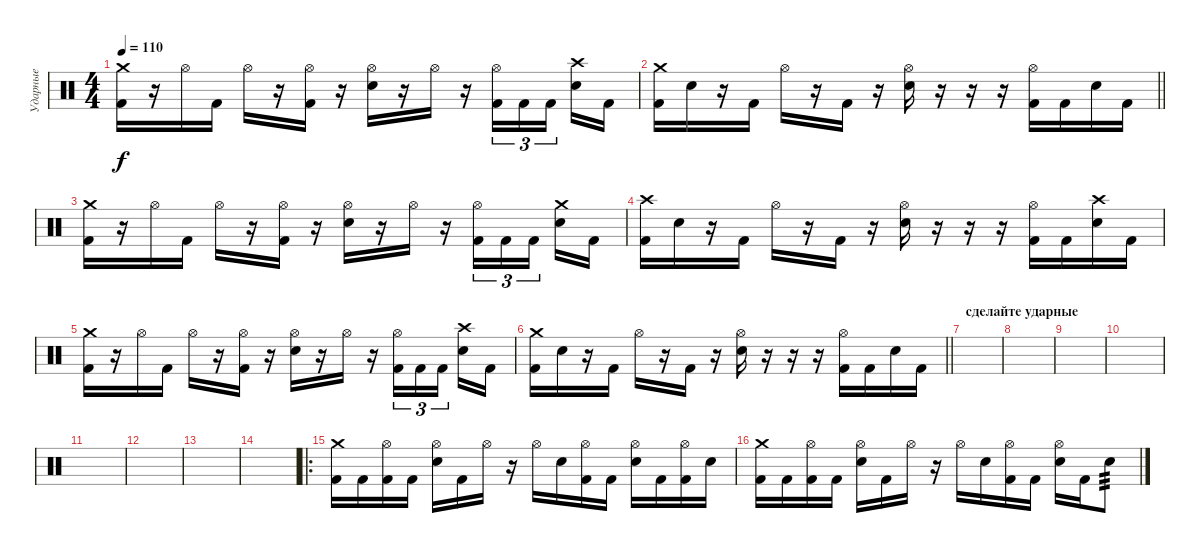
\track ("Ударные" "Ударные") {instrument percussion}
\staff {score}
\articulation defaults
\ts (4 4)
\tempo 110
\clef neutral
\ks c
("Crash medium (hit)" "Kick (hit) 2").16{dy f} r.16 "Hi-Hat (open)".16 "Kick (hit) 2".16 "Hi-Hat (open)".16 r.16 ("Hi-Hat (open)" "Kick (hit) 2").16 r.16 ("Hi-Hat (open)" "Electric Snare (hit)").16 r.16 "Hi-Hat (open)".16 r.16 ("Hi-Hat (open)" "Kick (hit) 2").16{tu (3 2)} "Kick (hit) 2".16{tu (3 2)} "Kick (hit) 2".16{tu (3 2) beam splitsecondary} ("Crash high (hit)" "Electric Snare (hit)").16 "Kick (hit) 2".16 |
\barLineRight lightlight
("Crash medium (hit)" "Kick (hit) 2").16 "Electric Snare (hit)".16 r.16 "Kick (hit) 2".16 "Hi-Hat (open)".16 r.16 "Kick (hit) 2".16 r.16 ("Hi-Hat (open)" "Electric Snare (hit)").16 r.16 r.16 r.16 ("Hi-Hat (open)" "Kick (hit) 2").16 "Kick (hit) 2".16 "Electric Snare (hit)".16 "Kick (hit) 2".16 |
("Crash medium (hit)" "Kick (hit) 2").16 r.16 "Hi-Hat (open)".16 "Kick (hit) 2".16 "Hi-Hat (open)".16 r.16 ("Hi-Hat (open)" "Kick (hit) 2").16 r.16 ("Hi-Hat (open)" "Electric Snare (hit)").16 r.16 "Hi-Hat (open)".16 r.16 ("Hi-Hat (open)" "Kick (hit) 2").16{tu (3 2)} "Kick (hit) 2".16{tu (3 2)} "Kick (hit) 2".16{tu (3 2) beam splitsecondary} ("Crash medium (hit)" "Electric Snare (hit)").16 "Kick (hit) 2".16 |
("Crash high (hit)" "Kick (hit) 2").16 "Electric Snare (hit)".16 r.16 "Kick (hit) 2".16 "Hi-Hat (open)".16 r.16 "Kick (hit) 2".16 r.16 ("Hi-Hat (open)" "Electric Snare (hit)").16 r.16 r.16 r.16 ("Hi-Hat (open)" "Kick (hit) 2").16 "Kick (hit) 2".16 ("Crash high (hit)" "Electric Snare (hit)").16 "Kick (hit) 2".16 |
("Crash medium (hit)" "Kick (hit) 2").16 r.16 "Hi-Hat (open)".16 "Kick (hit) 2".16 "Hi-Hat (open)".16 r.16 ("Hi-Hat (open)" "Kick (hit) 2").16 r.16 ("Hi-Hat (open)" "Electric Snare (hit)").16 r.16 "Hi-Hat (open)".16 r.16 ("Hi-Hat (open)" "Kick (hit) 2").16{tu (3 2)} "Kick (hit) 2".16{tu (3 2)} "Kick (hit) 2".16{tu (3 2) beam splitsecondary} ("Crash high (hit)" "Electric Snare (hit)").16 "Kick (hit) 2".16 |
\barLineRight lightlight
("Crash medium (hit)" "Kick (hit) 2").16 "Electric Snare (hit)".16 r.16 "Kick (hit) 2".16 "Hi-Hat (open)".16 r.16 "Kick (hit) 2".16 r.16 ("Hi-Hat (open)" "Electric Snare (hit)").16 r.16 r.16 r.16 ("Hi-Hat (open)" "Kick (hit) 2").16 "Kick (hit) 2".16 "Electric Snare (hit)".16 "Kick (hit) 2".16 |
\section ("" "сделайте ударные")
|
|
|
|
|
|
|
|
\ro
("Crash medium (hit)" "Kick (hit) 2").16 "Kick (hit) 2".16 ("Hi-Hat (open)" "Kick (hit) 2").16 "Kick (hit) 2".16 ("Hi-Hat (open)" "Electric Snare (hit)").16 "Kick (hit) 2".16 "Hi-Hat (open)".16 r.16 "Hi-Hat (open)".16 "Electric Snare (hit)".16 ("Hi-Hat (open)" "Kick (hit) 2").16 "Kick (hit) 2".16 ("Hi-Hat (open)" "Electric Snare (hit)").16 "Kick (hit) 2".16 ("Hi-Hat (open)" "Kick (hit) 2").16 "Electric Snare (hit)".16 |
("Crash medium (hit)" "Kick (hit) 2").16 "Kick (hit) 2".16 ("Hi-Hat (open)" "Kick (hit) 2").16 "Kick (hit) 2".16 ("Hi-Hat (open)" "Electric Snare (hit)").16 "Kick (hit) 2".16 "Hi-Hat (open)".16 r.16 "Hi-Hat (open)".16 "Electric Snare (hit)".16 ("Hi-Hat (open)" "Kick (hit) 2").16 "Kick (hit) 2".16 ("Hi-Hat (open)" "Electric Snare (hit)").16 "Kick (hit) 2".16 "Electric Snare (hit)".8{tp 3}
